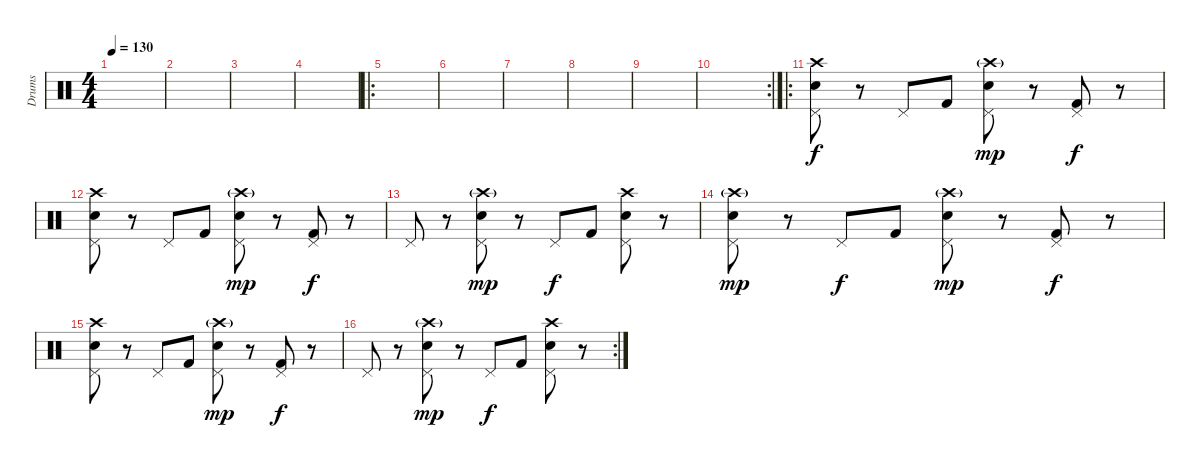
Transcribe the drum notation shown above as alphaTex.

\track ("Drums" "Drums") {instrument percussion}
\staff {score}
\articulation defaults
\ts (4 4)
\tempo 130
\clef neutral
\ks c
|
|
|
|
\ro
|
|
|
|
|
\rc 2
|
\ro
("Crash high (hit)" "Snare (hit) 2" "Pedal Hi-Hat (hit)").8 r.8 "Pedal Hi-Hat (hit)".8 "Kick (hit) 2".8 ("Crash high (hit)"{g} "Snare (hit) 2" "Pedal Hi-Hat (hit)").8{dy mp} r.8 ("Pedal Hi-Hat (hit)" "Kick (hit) 2").8{dy f} r.8 |
("Crash high (hit)" "Snare (hit) 2" "Pedal Hi-Hat (hit)").8 r.8 "Pedal Hi-Hat (hit)".8 "Kick (hit) 2".8 ("Crash high (hit)"{g} "Snare (hit) 2" "Pedal Hi-Hat (hit)").8{dy mp} r.8 ("Pedal Hi-Hat (hit)" "Kick (hit) 2").8{dy f} r.8 |
"Pedal Hi-Hat (hit)".8 r.8 ("Crash high (hit)"{g} "Snare (hit) 2" "Pedal Hi-Hat (hit)").8{dy mp} r.8 "Pedal Hi-Hat (hit)".8{dy f} "Kick (hit) 2".8 ("Crash high (hit)" "Snare (hit) 2" "Pedal Hi-Hat (hit)").8 r.8 |
("Crash high (hit)"{g} "Snare (hit) 2" "Pedal Hi-Hat (hit)").8{dy mp} r.8 "Pedal Hi-Hat (hit)".8{dy f} "Kick (hit) 2".8 ("Crash high (hit)"{g} "Snare (hit) 2" "Pedal Hi-Hat (hit)").8{dy mp} r.8 ("Pedal Hi-Hat (hit)" "Kick (hit) 2").8{dy f} r.8 |
("Crash high (hit)" "Snare (hit) 2" "Pedal Hi-Hat (hit)").8 r.8 "Pedal Hi-Hat (hit)".8 "Kick (hit) 2".8 ("Crash high (hit)"{g} "Snare (hit) 2" "Pedal Hi-Hat (hit)").8{dy mp} r.8 ("Pedal Hi-Hat (hit)" "Kick (hit) 2").8{dy f} r.8 |
\rc 2 "Pedal Hi-Hat (hit)".8
r.8 ("Crash high (hit)"{g} "Snare (hit) 2" "Pedal Hi-Hat (hit)").8{dy mp} r.8 "Pedal Hi-Hat (hit)".8{dy f} "Kick (hit) 2".8 ("Crash high (hit)" "Snare (hit) 2" "Pedal Hi-Hat (hit)").8 r.8
